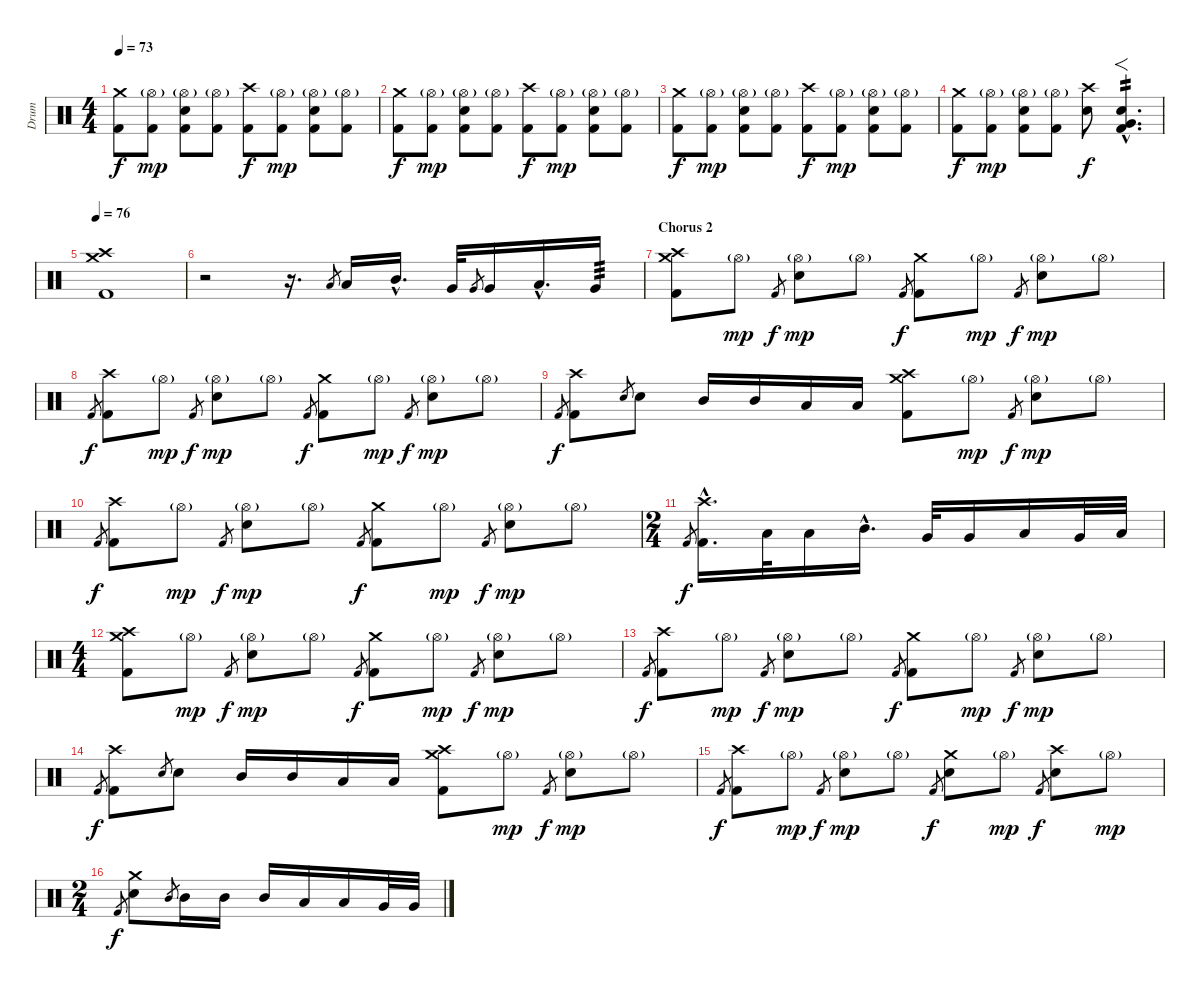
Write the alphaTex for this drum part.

\track ("Drum" "Drum") {instrument percussion}
\staff {score}
\articulation defaults
\ts (4 4)
\tempo 73
\clef neutral
\ks c
("Kick (hit) 2" "Crash medium (hit)").8{dy f} ("Hi-Hat (open)"{g} "Kick (hit) 2").8{dy mp} ("Hi-Hat (open)"{g} "Electric Snare (hit)" "Kick (hit) 2").8 ("Hi-Hat (open)"{g} "Kick (hit) 2").8 ("Kick (hit) 2" "Crash high (hit)").8{dy f} ("Hi-Hat (open)"{g} "Kick (hit) 2").8{dy mp} ("Hi-Hat (open)"{g} "Electric Snare (hit)" "Kick (hit) 2").8 ("Hi-Hat (open)"{g} "Kick (hit) 2").8 |
("Kick (hit) 2" "Crash medium (hit)").8{dy f} ("Hi-Hat (open)"{g} "Kick (hit) 2").8{dy mp} ("Hi-Hat (open)"{g} "Electric Snare (hit)" "Kick (hit) 2").8 ("Hi-Hat (open)"{g} "Kick (hit) 2").8 ("Kick (hit) 2" "Crash high (hit)").8{dy f} ("Hi-Hat (open)"{g} "Kick (hit) 2").8{dy mp} ("Hi-Hat (open)"{g} "Electric Snare (hit)" "Kick (hit) 2").8 ("Hi-Hat (open)"{g} "Kick (hit) 2").8 |
("Kick (hit) 2" "Crash medium (hit)").8{dy f} ("Hi-Hat (open)"{g} "Kick (hit) 2").8{dy mp} ("Hi-Hat (open)"{g} "Electric Snare (hit)" "Kick (hit) 2").8 ("Hi-Hat (open)"{g} "Kick (hit) 2").8 ("Kick (hit) 2" "Crash high (hit)").8{dy f} ("Hi-Hat (open)"{g} "Kick (hit) 2").8{dy mp} ("Hi-Hat (open)"{g} "Electric Snare (hit)" "Kick (hit) 2").8 ("Hi-Hat (open)"{g} "Kick (hit) 2").8 |
("Kick (hit) 2" "Crash medium (hit)").8{dy f} ("Hi-Hat (open)"{g} "Kick (hit) 2").8{dy mp} ("Hi-Hat (open)"{g} "Electric Snare (hit)" "Kick (hit) 2").8 ("Hi-Hat (open)"{g} "Kick (hit) 2").8 ("Electric Snare (hit)" "Crash high (hit)").8{dy f} ("Very Low Tom (hit)"{hac} "Electric Snare (hit)"{hac} "Kick (hit) 2"{hac}).4{f d tp 2} |
\tempo 76
("Kick (hit) 2" "Crash medium (hit)" "Crash high (hit)").1 |
r.2 r.16{d} "Low Tom (hit)".8{gr} "Low Tom (hit)".16 "Mid Tom (hit)"{hac}.16{d} "Very Low Tom (hit)".32 "Very Low Tom (hit)".8{gr} "Very Low Tom (hit)".16 "Low Tom (hit)"{hac}.16{d} "Very Low Tom (hit)".16{tp 3} |
\section ("" "Chorus 2")
("Kick (hit) 2" "Crash medium (hit)" "Crash high (hit)").8 "Hi-Hat (open)"{g}.8{dy mp} "Kick (hit) 2".8{gr dy f} ("Hi-Hat (open)"{g} "Electric Snare (hit)").8{dy mp} "Hi-Hat (open)"{g}.8 "Kick (hit) 2".8{gr dy f} ("Kick (hit) 2" "Crash medium (hit)").8 "Hi-Hat (open)"{g}.8{dy mp} "Kick (hit) 2".8{gr dy f} ("Hi-Hat (open)"{g} "Electric Snare (hit)").8{dy mp} "Hi-Hat (open)"{g}.8 |
"Kick (hit) 2".8{gr dy f} ("Kick (hit) 2" "Crash high (hit)").8 "Hi-Hat (open)"{g}.8{dy mp} "Kick (hit) 2".8{gr dy f} ("Hi-Hat (open)"{g} "Electric Snare (hit)").8{dy mp} "Hi-Hat (open)"{g}.8 "Kick (hit) 2".8{gr dy f} ("Kick (hit) 2" "Crash medium (hit)").8 "Hi-Hat (open)"{g}.8{dy mp} "Kick (hit) 2".8{gr dy f} ("Hi-Hat (open)"{g} "Electric Snare (hit)").8{dy mp} "Hi-Hat (open)"{g}.8 |
"Kick (hit) 2".8{gr dy f} ("Kick (hit) 2" "Crash high (hit)").8 "Electric Snare (hit)".8{gr} "Electric Snare (hit)".8 "Mid Tom (hit)".16 "Mid Tom (hit)".16 "Low Tom (hit)".16 "Low Tom (hit)".16 ("Kick (hit) 2" "Crash medium (hit)" "Crash high (hit)").8 "Hi-Hat (open)"{g}.8{dy mp} "Kick (hit) 2".8{gr dy f} ("Hi-Hat (open)"{g} "Electric Snare (hit)").8{dy mp} "Hi-Hat (open)"{g}.8 |
"Kick (hit) 2".8{gr dy f} ("Kick (hit) 2" "Crash high (hit)").8 "Hi-Hat (open)"{g}.8{dy mp} "Kick (hit) 2".8{gr dy f} ("Hi-Hat (open)"{g} "Electric Snare (hit)").8{dy mp} "Hi-Hat (open)"{g}.8 "Kick (hit) 2".8{gr dy f} ("Kick (hit) 2" "Crash medium (hit)").8 "Hi-Hat (open)"{g}.8{dy mp} "Kick (hit) 2".8{gr dy f} ("Hi-Hat (open)"{g} "Electric Snare (hit)").8{dy mp} "Hi-Hat (open)"{g}.8 |
\ts (2 4)
"Kick (hit) 2".8{gr dy f} ("Kick (hit) 2"{hac} "Crash high (hit)"{hac}).16{d} "Low Tom (hit)".32 "Low Tom (hit)".16 "Mid Tom (hit)"{hac}.16{d} "Very Low Tom (hit)".32 "Very Low Tom (hit)".16 "Low Tom (hit)".16 "Very Low Tom (hit)".32 "Low Floor Tom (hit)".32 |
\ts (4 4)
("Kick (hit) 2" "Crash medium (hit)" "Crash high (hit)").8 "Hi-Hat (open)"{g}.8{dy mp} "Kick (hit) 2".8{gr dy f} ("Hi-Hat (open)"{g} "Electric Snare (hit)").8{dy mp} "Hi-Hat (open)"{g}.8 "Kick (hit) 2".8{gr dy f} ("Kick (hit) 2" "Crash medium (hit)").8 "Hi-Hat (open)"{g}.8{dy mp} "Kick (hit) 2".8{gr dy f} ("Hi-Hat (open)"{g} "Electric Snare (hit)").8{dy mp} "Hi-Hat (open)"{g}.8 |
"Kick (hit) 2".8{gr dy f} ("Kick (hit) 2" "Crash high (hit)").8 "Hi-Hat (open)"{g}.8{dy mp} "Kick (hit) 2".8{gr dy f} ("Hi-Hat (open)"{g} "Electric Snare (hit)").8{dy mp} "Hi-Hat (open)"{g}.8 "Kick (hit) 2".8{gr dy f} ("Kick (hit) 2" "Crash medium (hit)").8 "Hi-Hat (open)"{g}.8{dy mp} "Kick (hit) 2".8{gr dy f} ("Hi-Hat (open)"{g} "Electric Snare (hit)").8{dy mp} "Hi-Hat (open)"{g}.8 |
"Kick (hit) 2".8{gr dy f} ("Kick (hit) 2" "Crash high (hit)").8 "Electric Snare (hit)".8{gr} "Electric Snare (hit)".8 "Mid Tom (hit)".16 "Mid Tom (hit)".16 "Low Tom (hit)".16 "Low Tom (hit)".16 ("Kick (hit) 2" "Crash medium (hit)" "Crash high (hit)").8 "Hi-Hat (open)"{g}.8{dy mp} "Kick (hit) 2".8{gr dy f} ("Hi-Hat (open)"{g} "Electric Snare (hit)").8{dy mp} "Hi-Hat (open)"{g}.8 |
"Kick (hit) 2".8{gr dy f} ("Kick (hit) 2" "Crash high (hit)").8 "Hi-Hat (open)"{g}.8{dy mp} "Kick (hit) 2".8{gr dy f} ("Hi-Hat (open)"{g} "Electric Snare (hit)").8{dy mp} "Hi-Hat (open)"{g}.8 "Kick (hit) 2".8{gr dy f} ("Electric Snare (hit)" "Crash medium (hit)").8 "Hi-Hat (open)"{g}.8{dy mp} "Kick (hit) 2".8{gr dy f} ("Electric Snare (hit)" "Crash high (hit)").8 "Hi-Hat (open)"{g}.8{dy mp} |
\ts (2 4)
"Kick (hit) 2".8{gr dy f} ("Electric Snare (hit)" "Crash medium (hit)").8 "Mid Tom (hit)".8{gr} "Mid Tom (hit)".16 "Mid Tom (hit)".16 "Mid Tom (hit)".16 "Low Tom (hit)".16 "Low Tom (hit)".16 "Very Low Tom (hit)".32 "Very Low Tom (hit)".32
